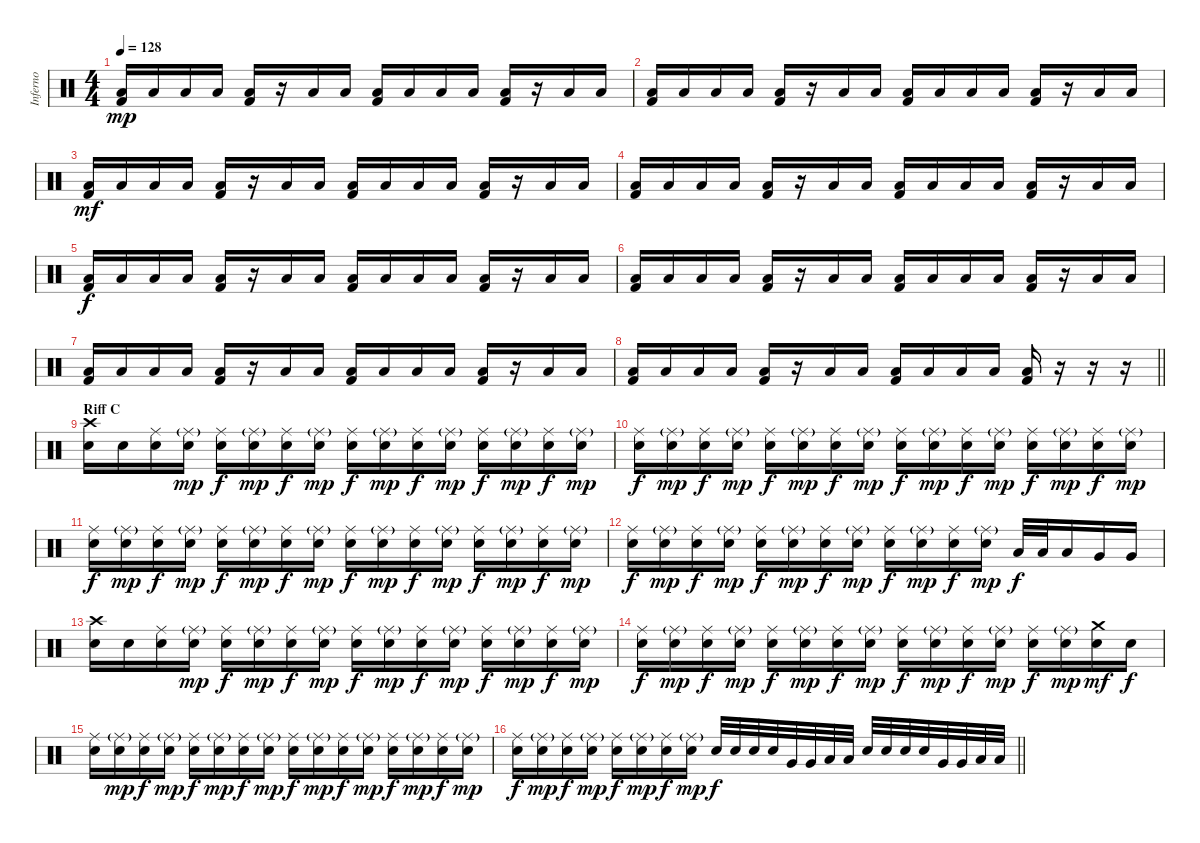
\track ("Inferno" "Inferno") {instrument percussion}
\staff {score}
\articulation defaults
\ts (4 4)
\tempo 128
\clef neutral
\ks c
("Low Floor Tom (hit)" "Kick (hit) 2").16{dy mp} "Low Floor Tom (hit)".16 "Low Floor Tom (hit)".16 "Low Floor Tom (hit)".16 ("Low Floor Tom (hit)" "Kick (hit) 2").16 r.16 "Low Floor Tom (hit)".16 "Low Floor Tom (hit)".16 ("Low Floor Tom (hit)" "Kick (hit) 2").16 "Low Floor Tom (hit)".16 "Low Floor Tom (hit)".16 "Low Floor Tom (hit)".16 ("Low Floor Tom (hit)" "Kick (hit) 2").16 r.16 "Low Floor Tom (hit)".16 "Low Floor Tom (hit)".16 |
("Low Floor Tom (hit)" "Kick (hit) 2").16 "Low Floor Tom (hit)".16 "Low Floor Tom (hit)".16 "Low Floor Tom (hit)".16 ("Low Floor Tom (hit)" "Kick (hit) 2").16 r.16 "Low Floor Tom (hit)".16 "Low Floor Tom (hit)".16 ("Low Floor Tom (hit)" "Kick (hit) 2").16 "Low Floor Tom (hit)".16 "Low Floor Tom (hit)".16 "Low Floor Tom (hit)".16 ("Low Floor Tom (hit)" "Kick (hit) 2").16 r.16 "Low Floor Tom (hit)".16 "Low Floor Tom (hit)".16 |
("Low Floor Tom (hit)" "Kick (hit) 2").16{dy mf} "Low Floor Tom (hit)".16 "Low Floor Tom (hit)".16 "Low Floor Tom (hit)".16 ("Low Floor Tom (hit)" "Kick (hit) 2").16 r.16 "Low Floor Tom (hit)".16 "Low Floor Tom (hit)".16 ("Low Floor Tom (hit)" "Kick (hit) 2").16 "Low Floor Tom (hit)".16 "Low Floor Tom (hit)".16 "Low Floor Tom (hit)".16 ("Low Floor Tom (hit)" "Kick (hit) 2").16 r.16 "Low Floor Tom (hit)".16 "Low Floor Tom (hit)".16 |
("Low Floor Tom (hit)" "Kick (hit) 2").16 "Low Floor Tom (hit)".16 "Low Floor Tom (hit)".16 "Low Floor Tom (hit)".16 ("Low Floor Tom (hit)" "Kick (hit) 2").16 r.16 "Low Floor Tom (hit)".16 "Low Floor Tom (hit)".16 ("Low Floor Tom (hit)" "Kick (hit) 2").16 "Low Floor Tom (hit)".16 "Low Floor Tom (hit)".16 "Low Floor Tom (hit)".16 ("Low Floor Tom (hit)" "Kick (hit) 2").16 r.16 "Low Floor Tom (hit)".16 "Low Floor Tom (hit)".16 |
("Low Floor Tom (hit)" "Kick (hit) 2").16{dy f} "Low Floor Tom (hit)".16 "Low Floor Tom (hit)".16 "Low Floor Tom (hit)".16 ("Low Floor Tom (hit)" "Kick (hit) 2").16 r.16 "Low Floor Tom (hit)".16 "Low Floor Tom (hit)".16 ("Low Floor Tom (hit)" "Kick (hit) 2").16 "Low Floor Tom (hit)".16 "Low Floor Tom (hit)".16 "Low Floor Tom (hit)".16 ("Low Floor Tom (hit)" "Kick (hit) 2").16 r.16 "Low Floor Tom (hit)".16 "Low Floor Tom (hit)".16 |
("Low Floor Tom (hit)" "Kick (hit) 2").16 "Low Floor Tom (hit)".16 "Low Floor Tom (hit)".16 "Low Floor Tom (hit)".16 ("Low Floor Tom (hit)" "Kick (hit) 2").16 r.16 "Low Floor Tom (hit)".16 "Low Floor Tom (hit)".16 ("Low Floor Tom (hit)" "Kick (hit) 2").16 "Low Floor Tom (hit)".16 "Low Floor Tom (hit)".16 "Low Floor Tom (hit)".16 ("Low Floor Tom (hit)" "Kick (hit) 2").16 r.16 "Low Floor Tom (hit)".16 "Low Floor Tom (hit)".16 |
("Low Floor Tom (hit)" "Kick (hit) 2").16 "Low Floor Tom (hit)".16 "Low Floor Tom (hit)".16 "Low Floor Tom (hit)".16 ("Low Floor Tom (hit)" "Kick (hit) 2").16 r.16 "Low Floor Tom (hit)".16 "Low Floor Tom (hit)".16 ("Low Floor Tom (hit)" "Kick (hit) 2").16 "Low Floor Tom (hit)".16 "Low Floor Tom (hit)".16 "Low Floor Tom (hit)".16 ("Low Floor Tom (hit)" "Kick (hit) 2").16 r.16 "Low Floor Tom (hit)".16 "Low Floor Tom (hit)".16 |
\barLineRight lightlight
("Low Floor Tom (hit)" "Kick (hit) 2").16 "Low Floor Tom (hit)".16 "Low Floor Tom (hit)".16 "Low Floor Tom (hit)".16 ("Low Floor Tom (hit)" "Kick (hit) 2").16 r.16 "Low Floor Tom (hit)".16 "Low Floor Tom (hit)".16 ("Low Floor Tom (hit)" "Kick (hit) 2").16 "Low Floor Tom (hit)".16 "Low Floor Tom (hit)".16 "Low Floor Tom (hit)".16 ("Low Floor Tom (hit)" "Kick (hit) 2").16 r.16 r.16 r.16 |
\section ("" "Riff C")
("Crash high (hit)" "Snare (hit) 2").16 "Snare (hit) 2".16 ("Ride (middle)" "Snare (hit) 2").16 ("Ride (middle)"{g} "Snare (hit) 2").16{dy mp} ("Ride (middle)" "Snare (hit) 2").16{dy f} ("Ride (middle)"{g} "Snare (hit) 2").16{dy mp} ("Ride (middle)" "Snare (hit) 2").16{dy f} ("Ride (middle)"{g} "Snare (hit) 2").16{dy mp} ("Ride (middle)" "Snare (hit) 2").16{dy f} ("Ride (middle)"{g} "Snare (hit) 2").16{dy mp} ("Ride (middle)" "Snare (hit) 2").16{dy f} ("Ride (middle)"{g} "Snare (hit) 2").16{dy mp} ("Ride (middle)" "Snare (hit) 2").16{dy f} ("Ride (middle)"{g} "Snare (hit) 2").16{dy mp} ("Ride (middle)" "Snare (hit) 2").16{dy f} ("Ride (middle)"{g} "Snare (hit) 2").16{dy mp} |
("Ride (middle)" "Snare (hit) 2").16{dy f} ("Ride (middle)"{g} "Snare (hit) 2").16{dy mp} ("Ride (middle)" "Snare (hit) 2").16{dy f} ("Ride (middle)"{g} "Snare (hit) 2").16{dy mp} ("Ride (middle)" "Snare (hit) 2").16{dy f} ("Ride (middle)"{g} "Snare (hit) 2").16{dy mp} ("Ride (middle)" "Snare (hit) 2").16{dy f} ("Ride (middle)"{g} "Snare (hit) 2").16{dy mp} ("Ride (middle)" "Snare (hit) 2").16{dy f} ("Ride (middle)"{g} "Snare (hit) 2").16{dy mp} ("Ride (middle)" "Snare (hit) 2").16{dy f} ("Ride (middle)"{g} "Snare (hit) 2").16{dy mp} ("Ride (middle)" "Snare (hit) 2").16{dy f} ("Ride (middle)"{g} "Snare (hit) 2").16{dy mp} ("Ride (middle)" "Snare (hit) 2").16{dy f} ("Ride (middle)"{g} "Snare (hit) 2").16{dy mp} |
("Ride (middle)" "Snare (hit) 2").16{dy f} ("Ride (middle)"{g} "Snare (hit) 2").16{dy mp} ("Ride (middle)" "Snare (hit) 2").16{dy f} ("Ride (middle)"{g} "Snare (hit) 2").16{dy mp} ("Ride (middle)" "Snare (hit) 2").16{dy f} ("Ride (middle)"{g} "Snare (hit) 2").16{dy mp} ("Ride (middle)" "Snare (hit) 2").16{dy f} ("Ride (middle)"{g} "Snare (hit) 2").16{dy mp} ("Ride (middle)" "Snare (hit) 2").16{dy f} ("Ride (middle)"{g} "Snare (hit) 2").16{dy mp} ("Ride (middle)" "Snare (hit) 2").16{dy f} ("Ride (middle)"{g} "Snare (hit) 2").16{dy mp} ("Ride (middle)" "Snare (hit) 2").16{dy f} ("Ride (middle)"{g} "Snare (hit) 2").16{dy mp} ("Ride (middle)" "Snare (hit) 2").16{dy f} ("Ride (middle)"{g} "Snare (hit) 2").16{dy mp} |
("Ride (middle)" "Snare (hit) 2").16{dy f} ("Ride (middle)"{g} "Snare (hit) 2").16{dy mp} ("Ride (middle)" "Snare (hit) 2").16{dy f} ("Ride (middle)"{g} "Snare (hit) 2").16{dy mp} ("Ride (middle)" "Snare (hit) 2").16{dy f} ("Ride (middle)"{g} "Snare (hit) 2").16{dy mp} ("Ride (middle)" "Snare (hit) 2").16{dy f} ("Ride (middle)"{g} "Snare (hit) 2").16{dy mp} ("Ride (middle)" "Snare (hit) 2").16{dy f} ("Ride (middle)"{g} "Snare (hit) 2").16{dy mp} ("Ride (middle)" "Snare (hit) 2").16{dy f} ("Ride (middle)"{g} "Snare (hit) 2").16{dy mp} "Low Tom (hit)".32{dy f} "Low Tom (hit)".32 "Low Tom (hit)".16 "Very Low Tom (hit)".16 "Very Low Tom (hit)".16 |
("Crash high (hit)" "Snare (hit) 2").16 "Snare (hit) 2".16 ("Ride (middle)" "Snare (hit) 2").16 ("Ride (middle)"{g} "Snare (hit) 2").16{dy mp} ("Ride (middle)" "Snare (hit) 2").16{dy f} ("Ride (middle)"{g} "Snare (hit) 2").16{dy mp} ("Ride (middle)" "Snare (hit) 2").16{dy f} ("Ride (middle)"{g} "Snare (hit) 2").16{dy mp} ("Ride (middle)" "Snare (hit) 2").16{dy f} ("Ride (middle)"{g} "Snare (hit) 2").16{dy mp} ("Ride (middle)" "Snare (hit) 2").16{dy f} ("Ride (middle)"{g} "Snare (hit) 2").16{dy mp} ("Ride (middle)" "Snare (hit) 2").16{dy f} ("Ride (middle)"{g} "Snare (hit) 2").16{dy mp} ("Ride (middle)" "Snare (hit) 2").16{dy f} ("Ride (middle)"{g} "Snare (hit) 2").16{dy mp} |
("Ride (middle)" "Snare (hit) 2").16{dy f} ("Ride (middle)"{g} "Snare (hit) 2").16{dy mp} ("Ride (middle)" "Snare (hit) 2").16{dy f} ("Ride (middle)"{g} "Snare (hit) 2").16{dy mp} ("Ride (middle)" "Snare (hit) 2").16{dy f} ("Ride (middle)"{g} "Snare (hit) 2").16{dy mp} ("Ride (middle)" "Snare (hit) 2").16{dy f} ("Ride (middle)"{g} "Snare (hit) 2").16{dy mp} ("Ride (middle)" "Snare (hit) 2").16{dy f} ("Ride (middle)"{g} "Snare (hit) 2").16{dy mp} ("Ride (middle)" "Snare (hit) 2").16{dy f} ("Ride (middle)"{g} "Snare (hit) 2").16{dy mp} ("Ride (middle)" "Snare (hit) 2").16{dy f} ("Ride (middle)"{g} "Snare (hit) 2").16{dy mp} ("Crash medium (hit)" "Snare (hit) 2").16{dy mf} "Snare (hit) 2".16{dy f} |
("Ride (middle)" "Snare (hit) 2").16 ("Ride (middle)"{g} "Snare (hit) 2").16{dy mp} ("Ride (middle)" "Snare (hit) 2").16{dy f} ("Ride (middle)"{g} "Snare (hit) 2").16{dy mp} ("Ride (middle)" "Snare (hit) 2").16{dy f} ("Ride (middle)"{g} "Snare (hit) 2").16{dy mp} ("Ride (middle)" "Snare (hit) 2").16{dy f} ("Ride (middle)"{g} "Snare (hit) 2").16{dy mp} ("Ride (middle)" "Snare (hit) 2").16{dy f} ("Ride (middle)"{g} "Snare (hit) 2").16{dy mp} ("Ride (middle)" "Snare (hit) 2").16{dy f} ("Ride (middle)"{g} "Snare (hit) 2").16{dy mp} ("Ride (middle)" "Snare (hit) 2").16{dy f} ("Ride (middle)"{g} "Snare (hit) 2").16{dy mp} ("Ride (middle)" "Snare (hit) 2").16{dy f} ("Ride (middle)"{g} "Snare (hit) 2").16{dy mp} |
\barLineRight lightlight
("Ride (middle)" "Snare (hit) 2").16{dy f} ("Ride (middle)"{g} "Snare (hit) 2").16{dy mp} ("Ride (middle)" "Snare (hit) 2").16{dy f} ("Ride (middle)"{g} "Snare (hit) 2").16{dy mp} ("Ride (middle)" "Snare (hit) 2").16{dy f} ("Ride (middle)"{g} "Snare (hit) 2").16{dy mp} ("Ride (middle)" "Snare (hit) 2").16{dy f} ("Ride (middle)"{g} "Snare (hit) 2").16{dy mp} "Snare (hit) 2".32{dy f} "Snare (hit) 2".32 "Snare (hit) 2".32 "Snare (hit) 2".32 "Very Low Tom (hit)".32 "Very Low Tom (hit)".32 "Low Floor Tom (hit)".32 "Low Floor Tom (hit)".32 "Snare (hit) 2".32 "Snare (hit) 2".32 "Snare (hit) 2".32 "Snare (hit) 2".32 "Very Low Tom (hit)".32 "Very Low Tom (hit)".32 "Low Floor Tom (hit)".32 "Low Floor Tom (hit)".32
